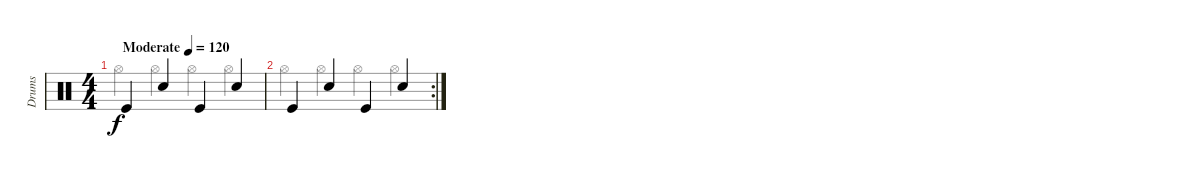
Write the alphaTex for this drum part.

\track ("Drums" "Drums") {instrument percussion}
\staff {score}
\articulation defaults
\voice
\ts (4 4)
\tempo (120 "Moderate")
\clef neutral
\ks c "Kick (hit)".4{dy f} "Snare (hit) 2".4 "Kick (hit)".4 "Snare (hit) 2".4
|
\rc 2 "Kick (hit)".4 "Snare (hit) 2".4 "Kick (hit)".4 "Snare (hit) 2".4
\voice
\clef neutral
\ks c "Hi-Hat (open)".4{dy f} "Hi-Hat (open)".4 "Hi-Hat (open)".4 "Hi-Hat (open)".4
|
"Hi-Hat (open)".4 "Hi-Hat (open)".4 "Hi-Hat (open)".4 "Hi-Hat (open)".4
